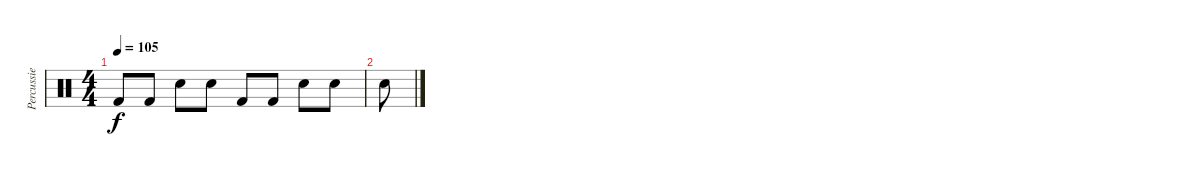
\track ("Percussie" "Percussie") {instrument percussion}
\staff {score}
\articulation defaults
\ts (4 4)
\tempo 105
\clef neutral
\ks c "Kick (hit) 2".8{dy f} "Kick (hit) 2".8 "Electric Snare (hit)".8 "Electric Snare (hit)".8 "Kick (hit) 2".8 "Kick (hit) 2".8 "Electric Snare (hit)".8 "Electric Snare (hit)".8
|
"Electric Snare (hit)".8
